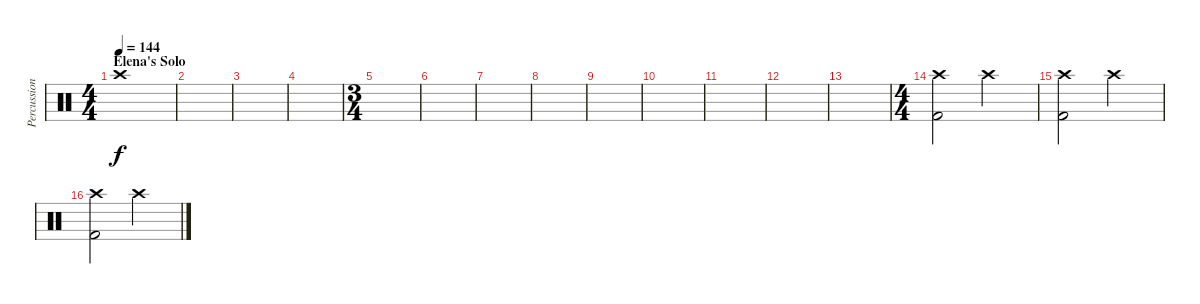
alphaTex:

\track ("Percussion" "Percussion") {instrument percussion}
\staff {score}
\articulation defaults
\ts (4 4)
\section ("" "Elena's Solo")
\tempo 144
\clef neutral
\ks c "Crash high (hit)".1{dy f}
|
|
|
|
\ts (3 4)
|
|
|
|
|
|
|
|
|
\ts (4 4)
("Crash high (hit)" "Kick (hit) 2").2 "Crash high (hit)".2 |
("Crash high (hit)" "Kick (hit) 2").2 "Crash high (hit)".2 |
("Crash high (hit)" "Kick (hit) 2").2 "Crash high (hit)".2
